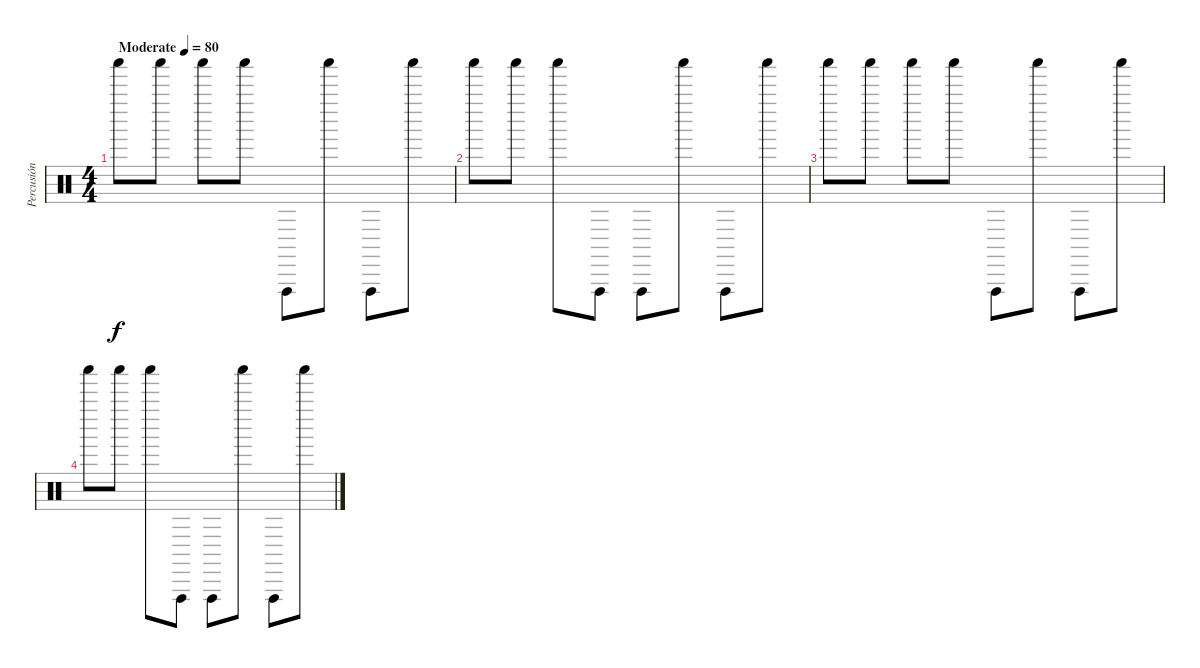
\track ("Percusión" "Percusión") {instrument percussion}
\staff {score}
\articulation defaults
\ts (4 4)
\tempo (80 "Moderate")
\clef neutral
\ks c "Shaker (hit)".8{dy f} "Shaker (hit)".8 "Shaker (hit)".8 "Shaker (hit)".8 "Vibraslap (hit)".8 "Shaker (hit)".8 "Vibraslap (hit)".8 "Shaker (hit)".8
|
"Shaker (hit)".8 "Shaker (hit)".8 "Shaker (hit)".8 "Vibraslap (hit)".8 "Vibraslap (hit)".8 "Shaker (hit)".8 "Vibraslap (hit)".8 "Shaker (hit)".8 |
"Shaker (hit)".8 "Shaker (hit)".8 "Shaker (hit)".8 "Shaker (hit)".8 "Vibraslap (hit)".8 "Shaker (hit)".8 "Vibraslap (hit)".8 "Shaker (hit)".8 |
"Shaker (hit)".8 "Shaker (hit)".8 "Shaker (hit)".8 "Vibraslap (hit)".8 "Vibraslap (hit)".8 "Shaker (hit)".8 "Vibraslap (hit)".8 "Shaker (hit)".8
